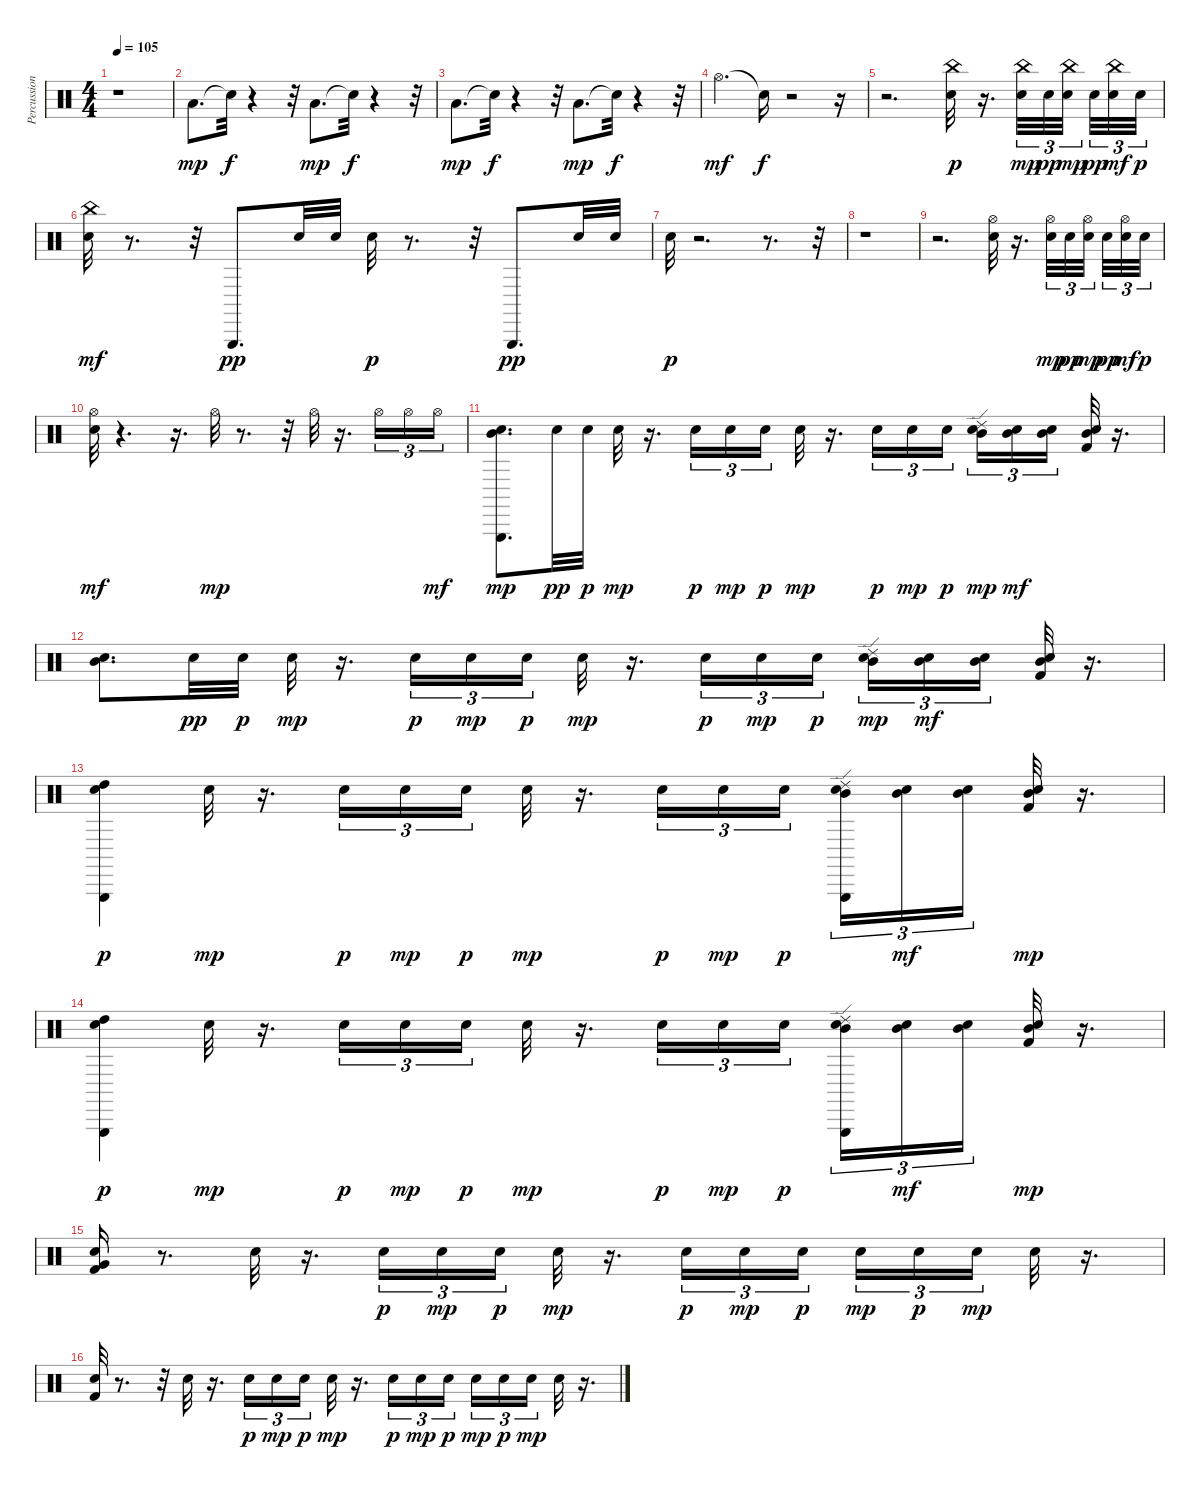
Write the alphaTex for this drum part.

\track ("Percussion" "Percussion") {instrument percussion}
\staff {score}
\articulation defaults
\ts (4 4)
\tempo 105
\clef neutral
\ks c
r.1{dy p} |
"Low Tom (hit)".8{d dy mp} "Snare (hit)"{t}.32{dy f} r.4 r.32 "Low Tom (hit)".8{d dy mp} "Snare (hit)"{t}.32{dy f} r.4 r.32 |
"Low Tom (hit)".8{d dy mp} "Snare (hit)"{t}.32{dy f} r.4 r.32 "Low Tom (hit)".8{d dy mp} "Snare (hit)"{t}.32{dy f} r.4 r.32 |
"Hi-Hat (open)".4{d dy mf} "Snare (hit)"{t}.16{dy f} r.2 r.16 |
r.2{d} ("China (hit)" "Snare (hit) 2").32{dy p} r.16{d} ("Snare (hit) 2" "China (hit)").32{tu (3 2) dy mp} "Snare (hit) 2".32{tu (3 2) dy pp} ("Snare (hit) 2" "China (hit)").32{tu (3 2) dy mp beam splitsecondary} "Snare (hit) 2".32{tu (3 2) dy pp} ("Snare (hit) 2" "China (hit)").32{tu (3 2) dy mf} "Snare (hit) 2".32{tu (3 2) dy p} |
("Snare (hit) 2" "China (hit)").32{dy mf} r.8{d} r.32 "Triangle (hit)".8{d dy pp} "Snare (hit) 2".32 "Snare (hit) 2".32 "Snare (hit) 2".32{dy p} r.8{d} r.32 "Triangle (hit)".8{d dy pp} "Snare (hit) 2".32 "Snare (hit) 2".32 |
"Snare (hit) 2".32{dy p} r.2{d} r.8{d} r.32 |
r.1 |
r.2{d} ("Hi-Hat (open)" "Snare (hit) 2").32 r.16{d} ("Snare (hit) 2" "Hi-Hat (open)").32{tu (3 2) dy mp} "Snare (hit) 2".32{tu (3 2) dy pp} ("Snare (hit) 2" "Hi-Hat (open)").32{tu (3 2) dy mp beam splitsecondary} "Snare (hit) 2".32{tu (3 2) dy pp} ("Snare (hit) 2" "Hi-Hat (open)").32{tu (3 2) dy mf} "Snare (hit) 2".32{tu (3 2) dy p} |
("Snare (hit) 2" "Hi-Hat (open)").32{dy mf} r.4{d} r.16{d} "Hi-Hat (open)".32{dy mp} r.8{d} r.32 "Hi-Hat (open)".32 r.16{d} "Hi-Hat (open)".16{tu (3 2)} "Hi-Hat (open)".16{tu (3 2)} "Hi-Hat (open)".16{tu (3 2) dy mf} |
("Mid Tom (hit)" "Triangle (hit)" "Snare (hit) 2").8{d dy mp} "Snare (hit) 2".32{dy pp} "Snare (hit) 2".32{dy p} "Snare (hit) 2".32{dy mp} r.16{d} "Snare (hit) 2".16{tu (3 2) dy p} "Snare (hit) 2".16{tu (3 2) dy mp} "Snare (hit) 2".16{tu (3 2) dy p} "Snare (hit) 2".32{dy mp} r.16{d} "Snare (hit) 2".16{tu (3 2) dy p} "Snare (hit) 2".16{tu (3 2) dy mp} "Snare (hit) 2".16{tu (3 2) dy p} ("Ride (edge) 2" "Snare (hit) 2" "Mid Tom (hit)").16{tu (3 2) dy mp} ("Snare (hit) 2" "Mid Tom (hit)").16{tu (3 2) dy mf} ("Snare (hit) 2" "Mid Tom (hit)").16{tu (3 2) beam splitsecondary} ("Snare (hit) 2" "Kick (hit) 2" "Mid Tom (hit)").32 r.16{d} |
("Snare (hit) 2" "Mid Tom (hit)").8{d} "Snare (hit) 2".32{dy pp} "Snare (hit) 2".32{dy p} "Snare (hit) 2".32{dy mp} r.16{d} "Snare (hit) 2".16{tu (3 2) dy p} "Snare (hit) 2".16{tu (3 2) dy mp} "Snare (hit) 2".16{tu (3 2) dy p} "Snare (hit) 2".32{dy mp} r.16{d} "Snare (hit) 2".16{tu (3 2) dy p} "Snare (hit) 2".16{tu (3 2) dy mp} "Snare (hit) 2".16{tu (3 2) dy p} ("Ride (edge) 2" "Snare (hit) 2" "Mid Tom (hit)").16{tu (3 2) dy mp} ("Snare (hit) 2" "Mid Tom (hit)").16{tu (3 2) dy mf} ("Snare (hit) 2" "Mid Tom (hit)").16{tu (3 2) beam splitsecondary} ("Kick (hit) 2" "Snare (hit) 2" "Mid Tom (hit)").32 r.16{d} |
("Snare (hit) 2" "High Tom (hit)" "Triangle (hit)").4{dy p} "Snare (hit) 2".32{dy mp} r.16{d} "Snare (hit) 2".16{tu (3 2) dy p} "Snare (hit) 2".16{tu (3 2) dy mp} "Snare (hit) 2".16{tu (3 2) dy p} "Snare (hit) 2".32{dy mp} r.16{d} "Snare (hit) 2".16{tu (3 2) dy p} "Snare (hit) 2".16{tu (3 2) dy mp} "Snare (hit) 2".16{tu (3 2) dy p} ("Snare (hit) 2" "Mid Tom (hit)" "Ride (edge) 2" "Triangle (hit)").16{tu (3 2)} ("Snare (hit) 2" "Mid Tom (hit)").16{tu (3 2) dy mf} ("Snare (hit) 2" "Mid Tom (hit)").16{tu (3 2) beam splitsecondary} ("Snare (hit) 2" "Mid Tom (hit)" "Kick (hit) 2").32{dy mp} r.16{d} |
("Snare (hit) 2" "High Tom (hit)" "Triangle (hit)").4{dy p} "Snare (hit) 2".32{dy mp} r.16{d} "Snare (hit) 2".16{tu (3 2) dy p} "Snare (hit) 2".16{tu (3 2) dy mp} "Snare (hit) 2".16{tu (3 2) dy p} "Snare (hit) 2".32{dy mp} r.16{d} "Snare (hit) 2".16{tu (3 2) dy p} "Snare (hit) 2".16{tu (3 2) dy mp} "Snare (hit) 2".16{tu (3 2) dy p} ("Snare (hit) 2" "Mid Tom (hit)" "Ride (edge) 2" "Triangle (hit)").16{tu (3 2)} ("Snare (hit) 2" "Mid Tom (hit)").16{tu (3 2) dy mf} ("Snare (hit) 2" "Mid Tom (hit)").16{tu (3 2) beam splitsecondary} ("Snare (hit) 2" "Mid Tom (hit)" "Kick (hit) 2").32{dy mp} r.16{d} |
("Very Low Tom (hit)" "Kick (hit) 2" "Snare (hit) 2").16 r.8{d} "Snare (hit) 2".32 r.16{d} "Snare (hit) 2".16{tu (3 2) dy p} "Snare (hit) 2".16{tu (3 2) dy mp} "Snare (hit) 2".16{tu (3 2) dy p} "Snare (hit) 2".32{dy mp} r.16{d} "Snare (hit) 2".16{tu (3 2) dy p} "Snare (hit) 2".16{tu (3 2) dy mp} "Snare (hit) 2".16{tu (3 2) dy p} "Snare (hit) 2".16{tu (3 2) dy mp} "Snare (hit) 2".16{tu (3 2) dy p} "Snare (hit) 2".16{tu (3 2) dy mp beam splitsecondary} "Snare (hit) 2".32 r.16{d} |
("Snare (hit) 2" "Kick (hit) 2").32 r.8{d} r.32 "Snare (hit) 2".32 r.16{d} "Snare (hit) 2".16{tu (3 2) dy p} "Snare (hit) 2".16{tu (3 2) dy mp} "Snare (hit) 2".16{tu (3 2) dy p} "Snare (hit) 2".32{dy mp} r.16{d} "Snare (hit) 2".16{tu (3 2) dy p} "Snare (hit) 2".16{tu (3 2) dy mp} "Snare (hit) 2".16{tu (3 2) dy p} "Snare (hit) 2".16{tu (3 2) dy mp} "Snare (hit) 2".16{tu (3 2) dy p} "Snare (hit) 2".16{tu (3 2) dy mp beam splitsecondary} "Snare (hit) 2".32 r.16{d}
